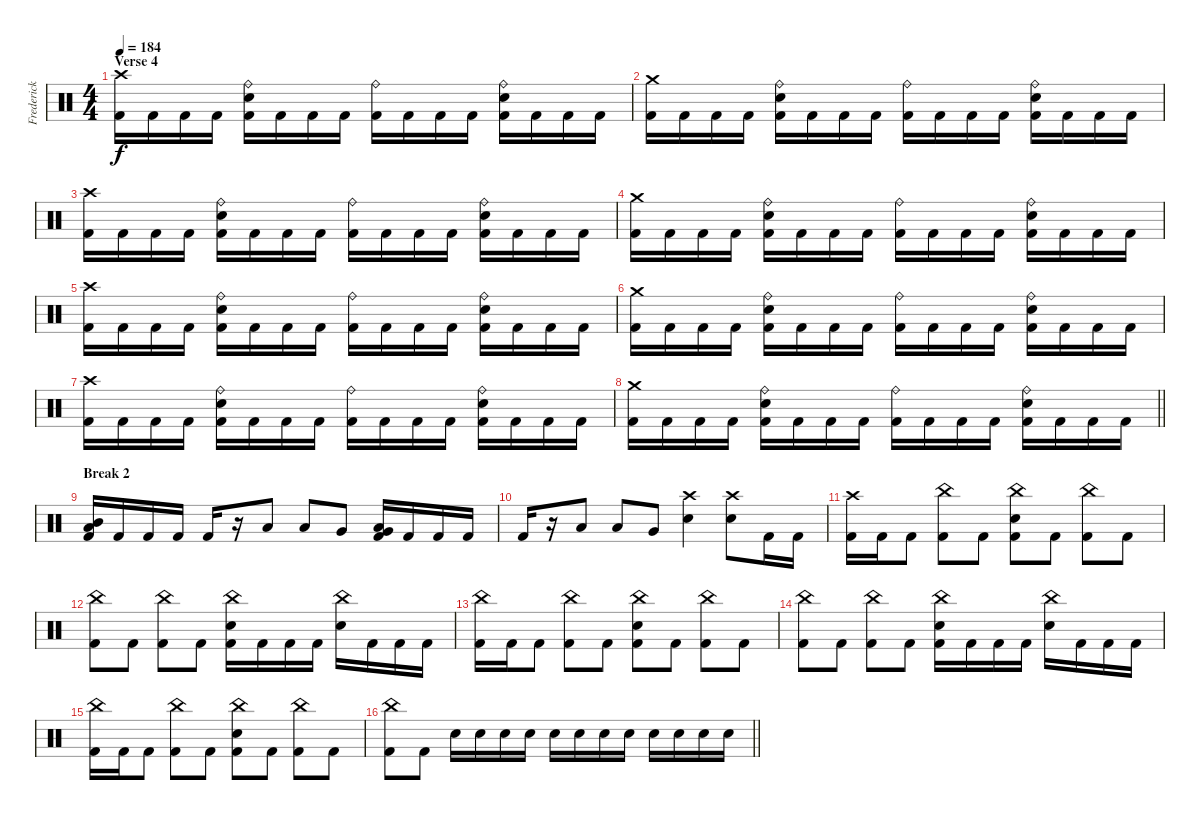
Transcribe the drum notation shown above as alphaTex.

\track ("Frederick Ehmke" "Frederick ") {instrument percussion}
\staff {score}
\articulation defaults
\ts (4 4)
\section ("" "Verse 4")
\tempo 184
\clef neutral
\ks c
("Kick (hit) 2" "Crash high (hit)").16{dy f} "Kick (hit) 2".16 "Kick (hit) 2".16 "Kick (hit) 2".16 ("Electric Snare (hit)" "Kick (hit) 2" "Ride (bell)").16 "Kick (hit) 2".16 "Kick (hit) 2".16 "Kick (hit) 2".16 ("Kick (hit) 2" "Ride (bell)").16 "Kick (hit) 2".16 "Kick (hit) 2".16 "Kick (hit) 2".16 ("Electric Snare (hit)" "Kick (hit) 2" "Ride (bell)").16 "Kick (hit) 2".16 "Kick (hit) 2".16 "Kick (hit) 2".16 |
("Kick (hit) 2" "Crash medium (hit)").16 "Kick (hit) 2".16 "Kick (hit) 2".16 "Kick (hit) 2".16 ("Electric Snare (hit)" "Kick (hit) 2" "Ride (bell)").16 "Kick (hit) 2".16 "Kick (hit) 2".16 "Kick (hit) 2".16 ("Kick (hit) 2" "Ride (bell)").16 "Kick (hit) 2".16 "Kick (hit) 2".16 "Kick (hit) 2".16 ("Electric Snare (hit)" "Kick (hit) 2" "Ride (bell)").16 "Kick (hit) 2".16 "Kick (hit) 2".16 "Kick (hit) 2".16 |
("Kick (hit) 2" "Crash high (hit)").16 "Kick (hit) 2".16 "Kick (hit) 2".16 "Kick (hit) 2".16 ("Electric Snare (hit)" "Kick (hit) 2" "Ride (bell)").16 "Kick (hit) 2".16 "Kick (hit) 2".16 "Kick (hit) 2".16 ("Kick (hit) 2" "Ride (bell)").16 "Kick (hit) 2".16 "Kick (hit) 2".16 "Kick (hit) 2".16 ("Electric Snare (hit)" "Kick (hit) 2" "Ride (bell)").16 "Kick (hit) 2".16 "Kick (hit) 2".16 "Kick (hit) 2".16 |
("Kick (hit) 2" "Crash medium (hit)").16 "Kick (hit) 2".16 "Kick (hit) 2".16 "Kick (hit) 2".16 ("Electric Snare (hit)" "Kick (hit) 2" "Ride (bell)").16 "Kick (hit) 2".16 "Kick (hit) 2".16 "Kick (hit) 2".16 ("Kick (hit) 2" "Ride (bell)").16 "Kick (hit) 2".16 "Kick (hit) 2".16 "Kick (hit) 2".16 ("Electric Snare (hit)" "Kick (hit) 2" "Ride (bell)").16 "Kick (hit) 2".16 "Kick (hit) 2".16 "Kick (hit) 2".16 |
("Kick (hit) 2" "Crash high (hit)").16 "Kick (hit) 2".16 "Kick (hit) 2".16 "Kick (hit) 2".16 ("Electric Snare (hit)" "Kick (hit) 2" "Ride (bell)").16 "Kick (hit) 2".16 "Kick (hit) 2".16 "Kick (hit) 2".16 ("Kick (hit) 2" "Ride (bell)").16 "Kick (hit) 2".16 "Kick (hit) 2".16 "Kick (hit) 2".16 ("Electric Snare (hit)" "Kick (hit) 2" "Ride (bell)").16 "Kick (hit) 2".16 "Kick (hit) 2".16 "Kick (hit) 2".16 |
("Kick (hit) 2" "Crash medium (hit)").16 "Kick (hit) 2".16 "Kick (hit) 2".16 "Kick (hit) 2".16 ("Electric Snare (hit)" "Kick (hit) 2" "Ride (bell)").16 "Kick (hit) 2".16 "Kick (hit) 2".16 "Kick (hit) 2".16 ("Kick (hit) 2" "Ride (bell)").16 "Kick (hit) 2".16 "Kick (hit) 2".16 "Kick (hit) 2".16 ("Electric Snare (hit)" "Kick (hit) 2" "Ride (bell)").16 "Kick (hit) 2".16 "Kick (hit) 2".16 "Kick (hit) 2".16 |
("Kick (hit) 2" "Crash high (hit)").16 "Kick (hit) 2".16 "Kick (hit) 2".16 "Kick (hit) 2".16 ("Electric Snare (hit)" "Kick (hit) 2" "Ride (bell)").16 "Kick (hit) 2".16 "Kick (hit) 2".16 "Kick (hit) 2".16 ("Kick (hit) 2" "Ride (bell)").16 "Kick (hit) 2".16 "Kick (hit) 2".16 "Kick (hit) 2".16 ("Electric Snare (hit)" "Kick (hit) 2" "Ride (bell)").16 "Kick (hit) 2".16 "Kick (hit) 2".16 "Kick (hit) 2".16 |
\barLineRight lightlight
("Kick (hit) 2" "Crash medium (hit)").16 "Kick (hit) 2".16 "Kick (hit) 2".16 "Kick (hit) 2".16 ("Electric Snare (hit)" "Kick (hit) 2" "Ride (bell)").16 "Kick (hit) 2".16 "Kick (hit) 2".16 "Kick (hit) 2".16 ("Kick (hit) 2" "Ride (bell)").16 "Kick (hit) 2".16 "Kick (hit) 2".16 "Kick (hit) 2".16 ("Electric Snare (hit)" "Kick (hit) 2" "Ride (bell)").16 "Kick (hit) 2".16 "Kick (hit) 2".16 "Kick (hit) 2".16 |
\section ("" "Break 2")
("Kick (hit) 2" "Mid Tom (hit)" "Low Tom (hit)").16 "Kick (hit) 2".16 "Kick (hit) 2".16 "Kick (hit) 2".16 "Kick (hit) 2".16 r.16 "Low Tom (hit)".8 "Low Floor Tom (hit)".8 "Very Low Tom (hit)".8 ("Kick (hit) 2" "Very Low Tom (hit)" "Low Floor Tom (hit)").16 "Kick (hit) 2".16 "Kick (hit) 2".16 "Kick (hit) 2".16 |
"Kick (hit) 2".16 r.16 "Low Tom (hit)".8 "Low Floor Tom (hit)".8 "Very Low Tom (hit)".8 ("Electric Snare (hit)" "Crash high (hit)").4 ("Electric Snare (hit)" "Crash high (hit)").8 "Kick (hit) 2".16 "Kick (hit) 2".16 |
("Kick (hit) 2" "Crash high (hit)").16 "Kick (hit) 2".16 "Kick (hit) 2".8 ("Kick (hit) 2" "China (hit)").8 "Kick (hit) 2".8 ("Electric Snare (hit)" "Kick (hit) 2" "China (hit)").8 "Kick (hit) 2".8 ("Kick (hit) 2" "China (hit)").8 "Kick (hit) 2".8 |
("Kick (hit) 2" "China (hit)").8 "Kick (hit) 2".8 ("Kick (hit) 2" "China (hit)").8 "Kick (hit) 2".8 ("Electric Snare (hit)" "Kick (hit) 2" "China (hit)").16 "Kick (hit) 2".16 "Kick (hit) 2".16 "Kick (hit) 2".16 ("Electric Snare (hit)" "China (hit)").16 "Kick (hit) 2".16 "Kick (hit) 2".16 "Kick (hit) 2".16 |
("Kick (hit) 2" "China (hit)").16 "Kick (hit) 2".16 "Kick (hit) 2".8 ("Kick (hit) 2" "China (hit)").8 "Kick (hit) 2".8 ("Electric Snare (hit)" "Kick (hit) 2" "China (hit)").8 "Kick (hit) 2".8 ("Kick (hit) 2" "China (hit)").8 "Kick (hit) 2".8 |
("Kick (hit) 2" "China (hit)").8 "Kick (hit) 2".8 ("Kick (hit) 2" "China (hit)").8 "Kick (hit) 2".8 ("Electric Snare (hit)" "Kick (hit) 2" "China (hit)").16 "Kick (hit) 2".16 "Kick (hit) 2".16 "Kick (hit) 2".16 ("Electric Snare (hit)" "China (hit)").16 "Kick (hit) 2".16 "Kick (hit) 2".16 "Kick (hit) 2".16 |
("Kick (hit) 2" "China (hit)").16 "Kick (hit) 2".16 "Kick (hit) 2".8 ("Kick (hit) 2" "China (hit)").8 "Kick (hit) 2".8 ("Electric Snare (hit)" "Kick (hit) 2" "China (hit)").8 "Kick (hit) 2".8 ("Kick (hit) 2" "China (hit)").8 "Kick (hit) 2".8 |
\barLineRight lightlight
("Kick (hit) 2" "China (hit)").8 "Kick (hit) 2".8 "Electric Snare (hit)".16 "Electric Snare (hit)".16 "Electric Snare (hit)".16 "Electric Snare (hit)".16 "Electric Snare (hit)".16 "Electric Snare (hit)".16 "Electric Snare (hit)".16 "Electric Snare (hit)".16 "Electric Snare (hit)".16 "Electric Snare (hit)".16 "Electric Snare (hit)".16 "Electric Snare (hit)".16
